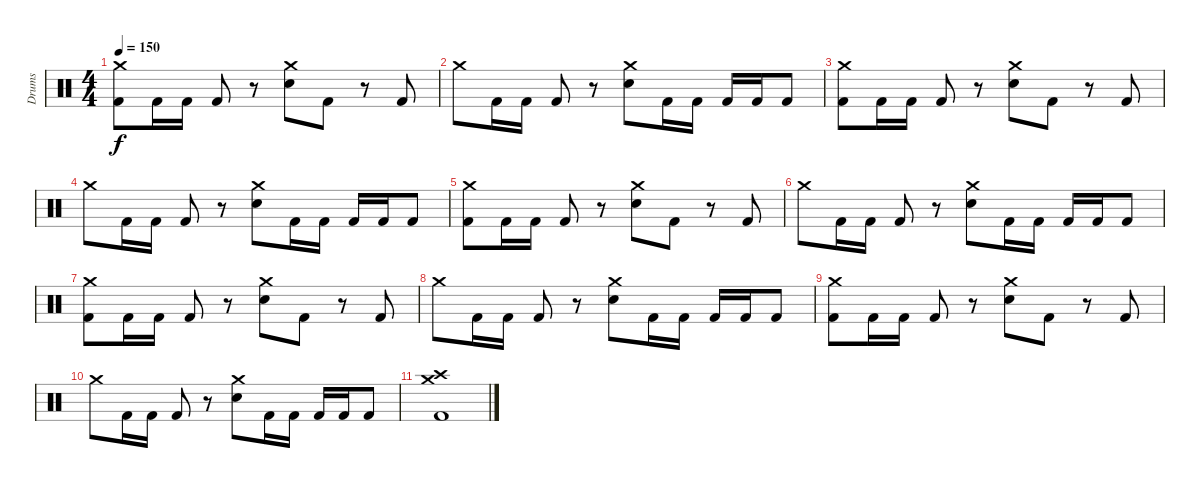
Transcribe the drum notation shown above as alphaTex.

\track ("Drums" "Drums") {instrument percussion}
\staff {score}
\articulation defaults
\ts (4 4)
\tempo 150
\clef neutral
\ks c
("Crash medium (hit)" "Kick (hit) 2").8{dy f} "Kick (hit) 2".16 "Kick (hit) 2".16 "Kick (hit) 2".8 r.8 ("Crash medium (hit)" "Electric Snare (hit)").8 "Kick (hit) 2".8 r.8 "Kick (hit) 2".8 |
"Crash medium (hit)".8 "Kick (hit) 2".16 "Kick (hit) 2".16 "Kick (hit) 2".8 r.8 ("Crash medium (hit)" "Electric Snare (hit)").8 "Kick (hit) 2".16 "Kick (hit) 2".16 "Kick (hit) 2".16 "Kick (hit) 2".16 "Kick (hit) 2".8 |
("Crash medium (hit)" "Kick (hit) 2").8 "Kick (hit) 2".16 "Kick (hit) 2".16 "Kick (hit) 2".8 r.8 ("Crash medium (hit)" "Electric Snare (hit)").8 "Kick (hit) 2".8 r.8 "Kick (hit) 2".8 |
"Crash medium (hit)".8 "Kick (hit) 2".16 "Kick (hit) 2".16 "Kick (hit) 2".8 r.8 ("Crash medium (hit)" "Electric Snare (hit)").8 "Kick (hit) 2".16 "Kick (hit) 2".16 "Kick (hit) 2".16 "Kick (hit) 2".16 "Kick (hit) 2".8 |
("Crash medium (hit)" "Kick (hit) 2").8 "Kick (hit) 2".16 "Kick (hit) 2".16 "Kick (hit) 2".8 r.8 ("Crash medium (hit)" "Electric Snare (hit)").8 "Kick (hit) 2".8 r.8 "Kick (hit) 2".8 |
"Crash medium (hit)".8 "Kick (hit) 2".16 "Kick (hit) 2".16 "Kick (hit) 2".8 r.8 ("Crash medium (hit)" "Electric Snare (hit)").8 "Kick (hit) 2".16 "Kick (hit) 2".16 "Kick (hit) 2".16 "Kick (hit) 2".16 "Kick (hit) 2".8 |
("Crash medium (hit)" "Kick (hit) 2").8 "Kick (hit) 2".16 "Kick (hit) 2".16 "Kick (hit) 2".8 r.8 ("Crash medium (hit)" "Electric Snare (hit)").8 "Kick (hit) 2".8 r.8 "Kick (hit) 2".8 |
"Crash medium (hit)".8 "Kick (hit) 2".16 "Kick (hit) 2".16 "Kick (hit) 2".8 r.8 ("Crash medium (hit)" "Electric Snare (hit)").8 "Kick (hit) 2".16 "Kick (hit) 2".16 "Kick (hit) 2".16 "Kick (hit) 2".16 "Kick (hit) 2".8 |
("Crash medium (hit)" "Kick (hit) 2").8 "Kick (hit) 2".16 "Kick (hit) 2".16 "Kick (hit) 2".8 r.8 ("Crash medium (hit)" "Electric Snare (hit)").8 "Kick (hit) 2".8 r.8 "Kick (hit) 2".8 |
"Crash medium (hit)".8 "Kick (hit) 2".16 "Kick (hit) 2".16 "Kick (hit) 2".8 r.8 ("Crash medium (hit)" "Electric Snare (hit)").8 "Kick (hit) 2".16 "Kick (hit) 2".16 "Kick (hit) 2".16 "Kick (hit) 2".16 "Kick (hit) 2".8 |
("Crash medium (hit)" "Crash high (hit)" "Kick (hit) 2").1
